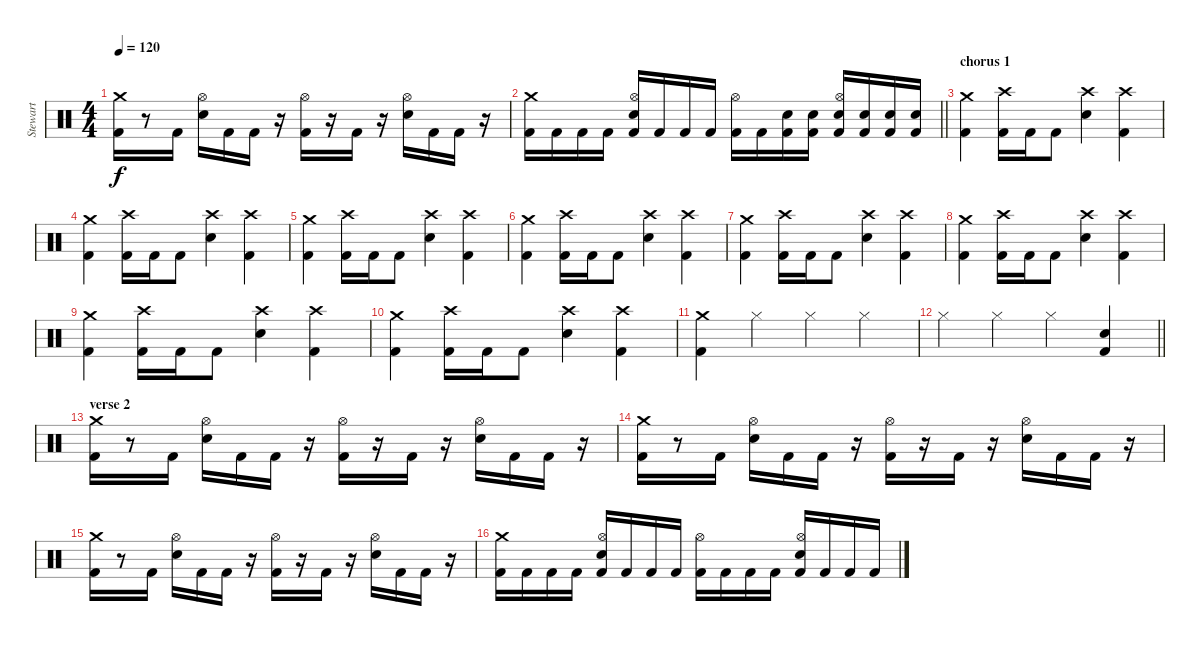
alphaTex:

\track ("Stewart" "Stewart") {instrument percussion}
\staff {score}
\articulation defaults
\ts (4 4)
\tempo 120
\clef neutral
\ks c
("Crash medium (hit)" "Kick (hit) 2").16{dy f} r.8 "Kick (hit) 2".16 ("Hi-Hat (open)" "Electric Snare (hit)").16 "Kick (hit) 2".16 "Kick (hit) 2".16 r.16 ("Hi-Hat (open)" "Kick (hit) 2").16 r.16 "Kick (hit) 2".16 r.16 ("Hi-Hat (open)" "Electric Snare (hit)").16 "Kick (hit) 2".16 "Kick (hit) 2".16 r.16 |
\barLineRight lightlight
("Crash medium (hit)" "Kick (hit) 2").16 "Kick (hit) 2".16 "Kick (hit) 2".16 "Kick (hit) 2".16 ("Hi-Hat (open)" "Electric Snare (hit)" "Kick (hit) 2").16 "Kick (hit) 2".16 "Kick (hit) 2".16 "Kick (hit) 2".16 ("Hi-Hat (open)" "Kick (hit) 2").16 "Kick (hit) 2".16 ("Electric Snare (hit)" "Kick (hit) 2").16 ("Electric Snare (hit)" "Kick (hit) 2").16 ("Hi-Hat (open)" "Electric Snare (hit)" "Kick (hit) 2").16 ("Electric Snare (hit)" "Kick (hit) 2").16 ("Electric Snare (hit)" "Kick (hit) 2").16 ("Electric Snare (hit)" "Kick (hit) 2").16 |
\section ("" "chorus 1")
("Crash medium (hit)" "Kick (hit) 2").4 ("Crash high (hit)" "Kick (hit) 2").16 "Kick (hit) 2".16 "Kick (hit) 2".8 ("Crash high (hit)" "Electric Snare (hit)").4 ("Crash high (hit)" "Kick (hit) 2").4 |
("Crash medium (hit)" "Kick (hit) 2").4 ("Crash high (hit)" "Kick (hit) 2").16 "Kick (hit) 2".16 "Kick (hit) 2".8 ("Crash high (hit)" "Electric Snare (hit)").4 ("Crash high (hit)" "Kick (hit) 2").4 |
("Crash medium (hit)" "Kick (hit) 2").4 ("Crash high (hit)" "Kick (hit) 2").16 "Kick (hit) 2".16 "Kick (hit) 2".8 ("Crash high (hit)" "Electric Snare (hit)").4 ("Crash high (hit)" "Kick (hit) 2").4 |
("Crash medium (hit)" "Kick (hit) 2").4 ("Crash high (hit)" "Kick (hit) 2").16 "Kick (hit) 2".16 "Kick (hit) 2".8 ("Crash high (hit)" "Electric Snare (hit)").4 ("Crash high (hit)" "Kick (hit) 2").4 |
("Crash medium (hit)" "Kick (hit) 2").4 ("Crash high (hit)" "Kick (hit) 2").16 "Kick (hit) 2".16 "Kick (hit) 2".8 ("Crash high (hit)" "Electric Snare (hit)").4 ("Crash high (hit)" "Kick (hit) 2").4 |
("Crash medium (hit)" "Kick (hit) 2").4 ("Crash high (hit)" "Kick (hit) 2").16 "Kick (hit) 2".16 "Kick (hit) 2".8 ("Crash high (hit)" "Electric Snare (hit)").4 ("Crash high (hit)" "Kick (hit) 2").4 |
("Crash medium (hit)" "Kick (hit) 2").4 ("Crash high (hit)" "Kick (hit) 2").16 "Kick (hit) 2".16 "Kick (hit) 2".8 ("Crash high (hit)" "Electric Snare (hit)").4 ("Crash high (hit)" "Kick (hit) 2").4 |
("Crash medium (hit)" "Kick (hit) 2").4 ("Crash high (hit)" "Kick (hit) 2").16 "Kick (hit) 2".16 "Kick (hit) 2".8 ("Crash high (hit)" "Electric Snare (hit)").4 ("Crash high (hit)" "Kick (hit) 2").4 |
("Crash medium (hit)" "Kick (hit) 2").4 "Hi-Hat (closed)".4 "Hi-Hat (closed)".4 "Hi-Hat (closed)".4 |
\barLineRight lightlight "Hi-Hat (closed)".4 "Hi-Hat (closed)".4 "Hi-Hat (closed)".4
("Electric Snare (hit)" "Kick (hit) 2").4 |
\section ("" "verse 2")
("Crash medium (hit)" "Kick (hit) 2").16 r.8 "Kick (hit) 2".16 ("Hi-Hat (open)" "Electric Snare (hit)").16 "Kick (hit) 2".16 "Kick (hit) 2".16 r.16 ("Hi-Hat (open)" "Kick (hit) 2").16 r.16 "Kick (hit) 2".16 r.16 ("Hi-Hat (open)" "Electric Snare (hit)").16 "Kick (hit) 2".16 "Kick (hit) 2".16 r.16 |
("Crash medium (hit)" "Kick (hit) 2").16 r.8 "Kick (hit) 2".16 ("Hi-Hat (open)" "Electric Snare (hit)").16 "Kick (hit) 2".16 "Kick (hit) 2".16 r.16 ("Hi-Hat (open)" "Kick (hit) 2").16 r.16 "Kick (hit) 2".16 r.16 ("Hi-Hat (open)" "Electric Snare (hit)").16 "Kick (hit) 2".16 "Kick (hit) 2".16 r.16 |
("Crash medium (hit)" "Kick (hit) 2").16 r.8 "Kick (hit) 2".16 ("Hi-Hat (open)" "Electric Snare (hit)").16 "Kick (hit) 2".16 "Kick (hit) 2".16 r.16 ("Hi-Hat (open)" "Kick (hit) 2").16 r.16 "Kick (hit) 2".16 r.16 ("Hi-Hat (open)" "Electric Snare (hit)").16 "Kick (hit) 2".16 "Kick (hit) 2".16 r.16 |
("Crash medium (hit)" "Kick (hit) 2").16 "Kick (hit) 2".16 "Kick (hit) 2".16 "Kick (hit) 2".16 ("Hi-Hat (open)" "Electric Snare (hit)" "Kick (hit) 2").16 "Kick (hit) 2".16 "Kick (hit) 2".16 "Kick (hit) 2".16 ("Hi-Hat (open)" "Kick (hit) 2").16 "Kick (hit) 2".16 "Kick (hit) 2".16 "Kick (hit) 2".16 ("Hi-Hat (open)" "Electric Snare (hit)" "Kick (hit) 2").16 "Kick (hit) 2".16 "Kick (hit) 2".16 "Kick (hit) 2".16
